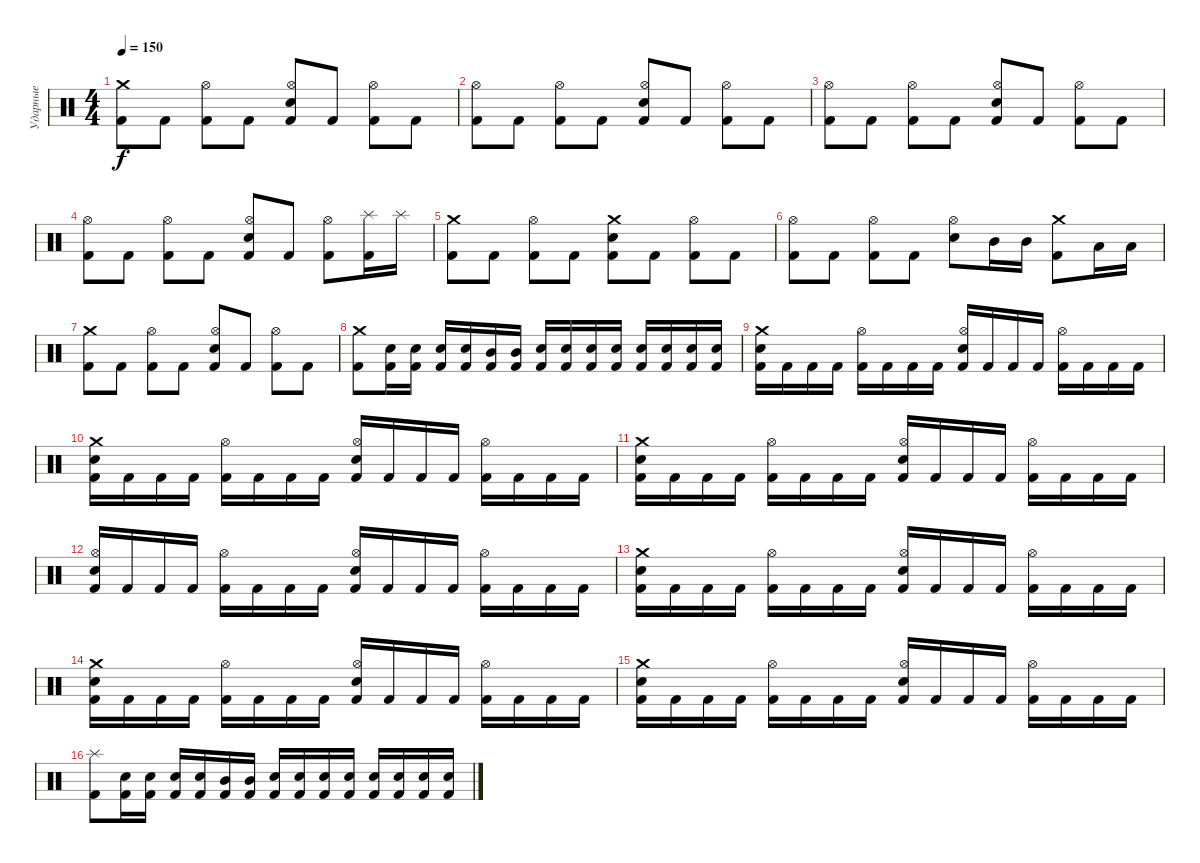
\track ("Ударные" "Ударные") {instrument percussion}
\staff {score}
\articulation defaults
\ts (4 4)
\tempo 150
\clef neutral
\ks c
("Crash medium (hit)" "Kick (hit) 2").8{dy f} "Kick (hit) 2".8 ("Hi-Hat (open)" "Kick (hit) 2").8 "Kick (hit) 2".8 ("Hi-Hat (open)" "Electric Snare (hit)" "Kick (hit) 2").8 "Kick (hit) 2".8 ("Hi-Hat (open)" "Kick (hit) 2").8 "Kick (hit) 2".8 |
("Hi-Hat (open)" "Kick (hit) 2").8 "Kick (hit) 2".8 ("Hi-Hat (open)" "Kick (hit) 2").8 "Kick (hit) 2".8 ("Hi-Hat (open)" "Electric Snare (hit)" "Kick (hit) 2").8 "Kick (hit) 2".8 ("Hi-Hat (open)" "Kick (hit) 2").8 "Kick (hit) 2".8 |
("Hi-Hat (open)" "Kick (hit) 2").8 "Kick (hit) 2".8 ("Hi-Hat (open)" "Kick (hit) 2").8 "Kick (hit) 2".8 ("Hi-Hat (open)" "Electric Snare (hit)" "Kick (hit) 2").8 "Kick (hit) 2".8 ("Hi-Hat (open)" "Kick (hit) 2").8 "Kick (hit) 2".8 |
("Hi-Hat (open)" "Kick (hit) 2").8 "Kick (hit) 2".8 ("Hi-Hat (open)" "Kick (hit) 2").8 "Kick (hit) 2".8 ("Hi-Hat (open)" "Electric Snare (hit)" "Kick (hit) 2").8 "Kick (hit) 2".8 ("Hi-Hat (open)" "Kick (hit) 2").8 ("Splash (hit)" "Kick (hit) 2").16 "Splash (hit)".16 |
("Crash medium (hit)" "Kick (hit) 2").8 "Kick (hit) 2".8 ("Hi-Hat (open)" "Kick (hit) 2").8 "Kick (hit) 2".8 ("Crash medium (hit)" "Electric Snare (hit)" "Kick (hit) 2").8 "Kick (hit) 2".8 ("Hi-Hat (open)" "Kick (hit) 2").8 "Kick (hit) 2".8 |
("Hi-Hat (open)" "Kick (hit) 2").8 "Kick (hit) 2".8 ("Hi-Hat (open)" "Kick (hit) 2").8 "Kick (hit) 2".8 ("Hi-Hat (open)" "Electric Snare (hit)").8 "Mid Tom (hit)".16 "Mid Tom (hit)".16 ("Crash medium (hit)" "Kick (hit) 2").8 "Low Tom (hit)".16 "Low Tom (hit)".16 |
("Crash medium (hit)" "Kick (hit) 2").8 "Kick (hit) 2".8 ("Hi-Hat (open)" "Kick (hit) 2").8 "Kick (hit) 2".8 ("Hi-Hat (open)" "Electric Snare (hit)" "Kick (hit) 2").8 "Kick (hit) 2".8 ("Hi-Hat (open)" "Kick (hit) 2").8 "Kick (hit) 2".8 |
("Crash medium (hit)" "Kick (hit) 2").8 ("Electric Snare (hit)" "Kick (hit) 2").16 ("Electric Snare (hit)" "Kick (hit) 2").16 ("Electric Snare (hit)" "Kick (hit) 2").16 ("Electric Snare (hit)" "Kick (hit) 2").16 ("Mid Tom (hit)" "Kick (hit) 2").16 ("Mid Tom (hit)" "Kick (hit) 2").16 ("Electric Snare (hit)" "Kick (hit) 2").16 ("Electric Snare (hit)" "Kick (hit) 2").16 ("Electric Snare (hit)" "Kick (hit) 2").16 ("Electric Snare (hit)" "Kick (hit) 2").16 ("Electric Snare (hit)" "Kick (hit) 2").16 ("Electric Snare (hit)" "Kick (hit) 2").16 ("Electric Snare (hit)" "Kick (hit) 2").16 ("Electric Snare (hit)" "Kick (hit) 2").16 |
("Crash medium (hit)" "Electric Snare (hit)" "Kick (hit) 2").16 "Kick (hit) 2".16 "Kick (hit) 2".16 "Kick (hit) 2".16 ("Hi-Hat (open)" "Kick (hit) 2").16 "Kick (hit) 2".16 "Kick (hit) 2".16 "Kick (hit) 2".16 ("Hi-Hat (open)" "Electric Snare (hit)" "Kick (hit) 2").16 "Kick (hit) 2".16 "Kick (hit) 2".16 "Kick (hit) 2".16 ("Hi-Hat (open)" "Kick (hit) 2").16 "Kick (hit) 2".16 "Kick (hit) 2".16 "Kick (hit) 2".16 |
("Crash medium (hit)" "Electric Snare (hit)" "Kick (hit) 2").16 "Kick (hit) 2".16 "Kick (hit) 2".16 "Kick (hit) 2".16 ("Hi-Hat (open)" "Kick (hit) 2").16 "Kick (hit) 2".16 "Kick (hit) 2".16 "Kick (hit) 2".16 ("Hi-Hat (open)" "Electric Snare (hit)" "Kick (hit) 2").16 "Kick (hit) 2".16 "Kick (hit) 2".16 "Kick (hit) 2".16 ("Hi-Hat (open)" "Kick (hit) 2").16 "Kick (hit) 2".16 "Kick (hit) 2".16 "Kick (hit) 2".16 |
("Crash medium (hit)" "Electric Snare (hit)" "Kick (hit) 2").16 "Kick (hit) 2".16 "Kick (hit) 2".16 "Kick (hit) 2".16 ("Hi-Hat (open)" "Kick (hit) 2").16 "Kick (hit) 2".16 "Kick (hit) 2".16 "Kick (hit) 2".16 ("Hi-Hat (open)" "Electric Snare (hit)" "Kick (hit) 2").16 "Kick (hit) 2".16 "Kick (hit) 2".16 "Kick (hit) 2".16 ("Hi-Hat (open)" "Kick (hit) 2").16 "Kick (hit) 2".16 "Kick (hit) 2".16 "Kick (hit) 2".16 |
("Hi-Hat (open)" "Electric Snare (hit)" "Kick (hit) 2").16 "Kick (hit) 2".16 "Kick (hit) 2".16 "Kick (hit) 2".16 ("Hi-Hat (open)" "Kick (hit) 2").16 "Kick (hit) 2".16 "Kick (hit) 2".16 "Kick (hit) 2".16 ("Hi-Hat (open)" "Electric Snare (hit)" "Kick (hit) 2").16 "Kick (hit) 2".16 "Kick (hit) 2".16 "Kick (hit) 2".16 ("Hi-Hat (open)" "Kick (hit) 2").16 "Kick (hit) 2".16 "Kick (hit) 2".16 "Kick (hit) 2".16 |
("Crash medium (hit)" "Electric Snare (hit)" "Kick (hit) 2").16 "Kick (hit) 2".16 "Kick (hit) 2".16 "Kick (hit) 2".16 ("Hi-Hat (open)" "Kick (hit) 2").16 "Kick (hit) 2".16 "Kick (hit) 2".16 "Kick (hit) 2".16 ("Hi-Hat (open)" "Electric Snare (hit)" "Kick (hit) 2").16 "Kick (hit) 2".16 "Kick (hit) 2".16 "Kick (hit) 2".16 ("Hi-Hat (open)" "Kick (hit) 2").16 "Kick (hit) 2".16 "Kick (hit) 2".16 "Kick (hit) 2".16 |
("Crash medium (hit)" "Electric Snare (hit)" "Kick (hit) 2").16 "Kick (hit) 2".16 "Kick (hit) 2".16 "Kick (hit) 2".16 ("Hi-Hat (open)" "Kick (hit) 2").16 "Kick (hit) 2".16 "Kick (hit) 2".16 "Kick (hit) 2".16 ("Hi-Hat (open)" "Electric Snare (hit)" "Kick (hit) 2").16 "Kick (hit) 2".16 "Kick (hit) 2".16 "Kick (hit) 2".16 ("Hi-Hat (open)" "Kick (hit) 2").16 "Kick (hit) 2".16 "Kick (hit) 2".16 "Kick (hit) 2".16 |
("Crash medium (hit)" "Electric Snare (hit)" "Kick (hit) 2").16 "Kick (hit) 2".16 "Kick (hit) 2".16 "Kick (hit) 2".16 ("Hi-Hat (open)" "Kick (hit) 2").16 "Kick (hit) 2".16 "Kick (hit) 2".16 "Kick (hit) 2".16 ("Hi-Hat (open)" "Electric Snare (hit)" "Kick (hit) 2").16 "Kick (hit) 2".16 "Kick (hit) 2".16 "Kick (hit) 2".16 ("Hi-Hat (open)" "Kick (hit) 2").16 "Kick (hit) 2".16 "Kick (hit) 2".16 "Kick (hit) 2".16 |
("Splash (hit)" "Kick (hit) 2").8 ("Electric Snare (hit)" "Kick (hit) 2").16 ("Electric Snare (hit)" "Kick (hit) 2").16 ("Electric Snare (hit)" "Kick (hit) 2").16 ("Electric Snare (hit)" "Kick (hit) 2").16 ("Mid Tom (hit)" "Kick (hit) 2").16 ("Mid Tom (hit)" "Kick (hit) 2").16 ("Electric Snare (hit)" "Kick (hit) 2").16 ("Electric Snare (hit)" "Kick (hit) 2").16 ("Electric Snare (hit)" "Kick (hit) 2").16 ("Electric Snare (hit)" "Kick (hit) 2").16 ("Electric Snare (hit)" "Kick (hit) 2").16 ("Electric Snare (hit)" "Kick (hit) 2").16 ("Electric Snare (hit)" "Kick (hit) 2").16 ("Electric Snare (hit)" "Kick (hit) 2").16
